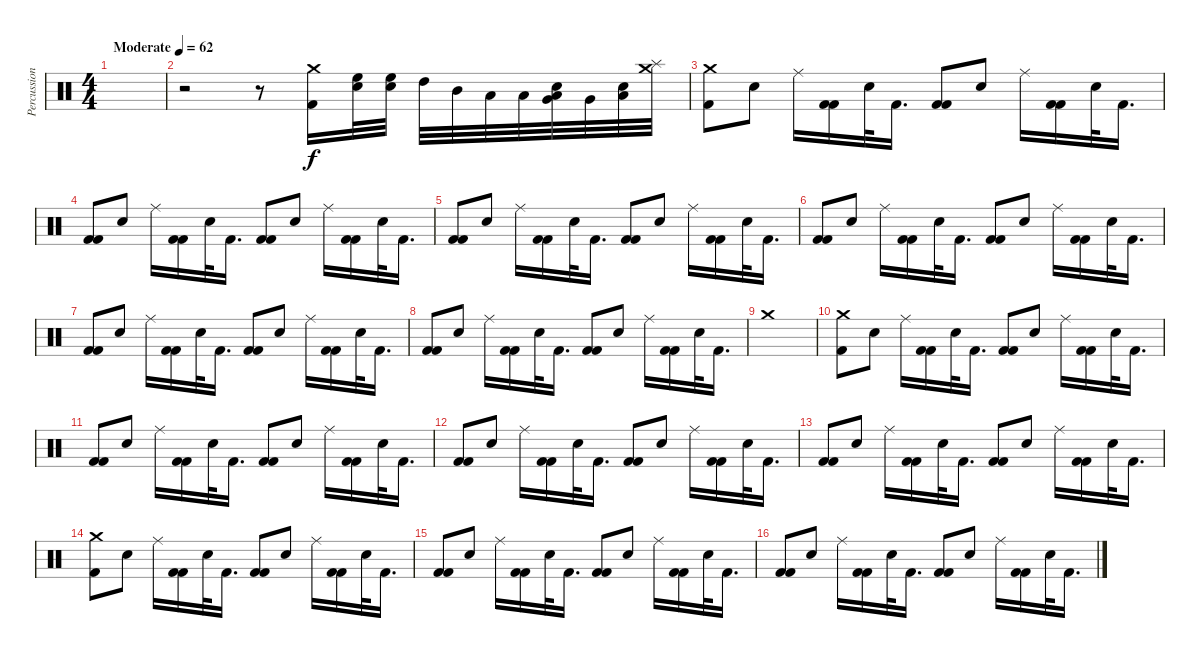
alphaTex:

\track ("Percussion" "Percussion") {instrument percussion}
\staff {score}
\articulation defaults
\ts (4 4)
\tempo (62 "Moderate")
\clef neutral
\ks c
|
r.2 r.8 ("Kick (hit) 2" "Crash medium (hit)").16 ("High Floor Tom (hit)" "Electric Snare (hit)").32 ("High Floor Tom (hit)" "Electric Snare (hit)").32 "High Tom (hit)".32 "Mid Tom (hit)".32 "Low Tom (hit)".32 "Low Tom (hit)".32 ("Very Low Tom (hit)" "Low Tom (hit)" "Electric Snare (hit)").32 "Very Low Tom (hit)".32 ("Low Floor Tom (hit)" "Electric Snare (hit)").32 ("Splash (hit)" "Crash medium (hit)").32 |
("Kick (hit) 2" "Crash medium (hit)").8 "Electric Snare (hit)".8 "Ride (middle)".16 ("Kick (hit) 2" "Kick (hit) 2").16 "Electric Snare (hit)".32 "Kick (hit) 2".16{d} ("Kick (hit) 2" "Kick (hit) 2").8 "Electric Snare (hit)".8 "Ride (middle)".16 ("Kick (hit) 2" "Kick (hit) 2").16 "Electric Snare (hit)".32 "Kick (hit) 2".16{d} |
("Kick (hit) 2" "Kick (hit) 2").8 "Electric Snare (hit)".8 "Ride (middle)".16 ("Kick (hit) 2" "Kick (hit) 2").16 "Electric Snare (hit)".32 "Kick (hit) 2".16{d} ("Kick (hit) 2" "Kick (hit) 2").8 "Electric Snare (hit)".8 "Ride (middle)".16 ("Kick (hit) 2" "Kick (hit) 2").16 "Electric Snare (hit)".32 "Kick (hit) 2".16{d} |
("Kick (hit) 2" "Kick (hit) 2").8 "Electric Snare (hit)".8 "Ride (middle)".16 ("Kick (hit) 2" "Kick (hit) 2").16 "Electric Snare (hit)".32 "Kick (hit) 2".16{d} ("Kick (hit) 2" "Kick (hit) 2").8 "Electric Snare (hit)".8 "Ride (middle)".16 ("Kick (hit) 2" "Kick (hit) 2").16 "Electric Snare (hit)".32 "Kick (hit) 2".16{d} |
("Kick (hit) 2" "Kick (hit) 2").8 "Electric Snare (hit)".8 "Ride (middle)".16 ("Kick (hit) 2" "Kick (hit) 2").16 "Electric Snare (hit)".32 "Kick (hit) 2".16{d} ("Kick (hit) 2" "Kick (hit) 2").8 "Electric Snare (hit)".8 "Ride (middle)".16 ("Kick (hit) 2" "Kick (hit) 2").16 "Electric Snare (hit)".32 "Kick (hit) 2".16{d} |
("Kick (hit) 2" "Kick (hit) 2").8 "Electric Snare (hit)".8 "Ride (middle)".16 ("Kick (hit) 2" "Kick (hit) 2").16 "Electric Snare (hit)".32 "Kick (hit) 2".16{d} ("Kick (hit) 2" "Kick (hit) 2").8 "Electric Snare (hit)".8 "Ride (middle)".16 ("Kick (hit) 2" "Kick (hit) 2").16 "Electric Snare (hit)".32 "Kick (hit) 2".16{d} |
("Kick (hit) 2" "Kick (hit) 2").8 "Electric Snare (hit)".8 "Ride (middle)".16 ("Kick (hit) 2" "Kick (hit) 2").16 "Electric Snare (hit)".32 "Kick (hit) 2".16{d} ("Kick (hit) 2" "Kick (hit) 2").8 "Electric Snare (hit)".8 "Ride (middle)".16 ("Kick (hit) 2" "Kick (hit) 2").16 "Electric Snare (hit)".32 "Kick (hit) 2".16{d} |
"Crash medium (hit)".1 |
("Kick (hit) 2" "Crash medium (hit)").8 "Electric Snare (hit)".8 "Ride (middle)".16 ("Kick (hit) 2" "Kick (hit) 2").16 "Electric Snare (hit)".32 "Kick (hit) 2".16{d} ("Kick (hit) 2" "Kick (hit) 2").8 "Electric Snare (hit)".8 "Ride (middle)".16 ("Kick (hit) 2" "Kick (hit) 2").16 "Electric Snare (hit)".32 "Kick (hit) 2".16{d} |
("Kick (hit) 2" "Kick (hit) 2").8 "Electric Snare (hit)".8 "Ride (middle)".16 ("Kick (hit) 2" "Kick (hit) 2").16 "Electric Snare (hit)".32 "Kick (hit) 2".16{d} ("Kick (hit) 2" "Kick (hit) 2").8 "Electric Snare (hit)".8 "Ride (middle)".16 ("Kick (hit) 2" "Kick (hit) 2").16 "Electric Snare (hit)".32 "Kick (hit) 2".16{d} |
("Kick (hit) 2" "Kick (hit) 2").8 "Electric Snare (hit)".8 "Ride (middle)".16 ("Kick (hit) 2" "Kick (hit) 2").16 "Electric Snare (hit)".32 "Kick (hit) 2".16{d} ("Kick (hit) 2" "Kick (hit) 2").8 "Electric Snare (hit)".8 "Ride (middle)".16 ("Kick (hit) 2" "Kick (hit) 2").16 "Electric Snare (hit)".32 "Kick (hit) 2".16{d} |
("Kick (hit) 2" "Kick (hit) 2").8 "Electric Snare (hit)".8 "Ride (middle)".16 ("Kick (hit) 2" "Kick (hit) 2").16 "Electric Snare (hit)".32 "Kick (hit) 2".16{d} ("Kick (hit) 2" "Kick (hit) 2").8 "Electric Snare (hit)".8 "Ride (middle)".16 ("Kick (hit) 2" "Kick (hit) 2").16 "Electric Snare (hit)".32 "Kick (hit) 2".16{d} |
("Kick (hit) 2" "Crash medium (hit)").8 "Electric Snare (hit)".8 "Ride (middle)".16 ("Kick (hit) 2" "Kick (hit) 2").16 "Electric Snare (hit)".32 "Kick (hit) 2".16{d} ("Kick (hit) 2" "Kick (hit) 2").8 "Electric Snare (hit)".8 "Ride (middle)".16 ("Kick (hit) 2" "Kick (hit) 2").16 "Electric Snare (hit)".32 "Kick (hit) 2".16{d} |
("Kick (hit) 2" "Kick (hit) 2").8 "Electric Snare (hit)".8 "Ride (middle)".16 ("Kick (hit) 2" "Kick (hit) 2").16 "Electric Snare (hit)".32 "Kick (hit) 2".16{d} ("Kick (hit) 2" "Kick (hit) 2").8 "Electric Snare (hit)".8 "Ride (middle)".16 ("Kick (hit) 2" "Kick (hit) 2").16 "Electric Snare (hit)".32 "Kick (hit) 2".16{d} |
("Kick (hit) 2" "Kick (hit) 2").8 "Electric Snare (hit)".8 "Ride (middle)".16 ("Kick (hit) 2" "Kick (hit) 2").16 "Electric Snare (hit)".32 "Kick (hit) 2".16{d} ("Kick (hit) 2" "Kick (hit) 2").8 "Electric Snare (hit)".8 "Ride (middle)".16 ("Kick (hit) 2" "Kick (hit) 2").16 "Electric Snare (hit)".32 "Kick (hit) 2".16{d}
